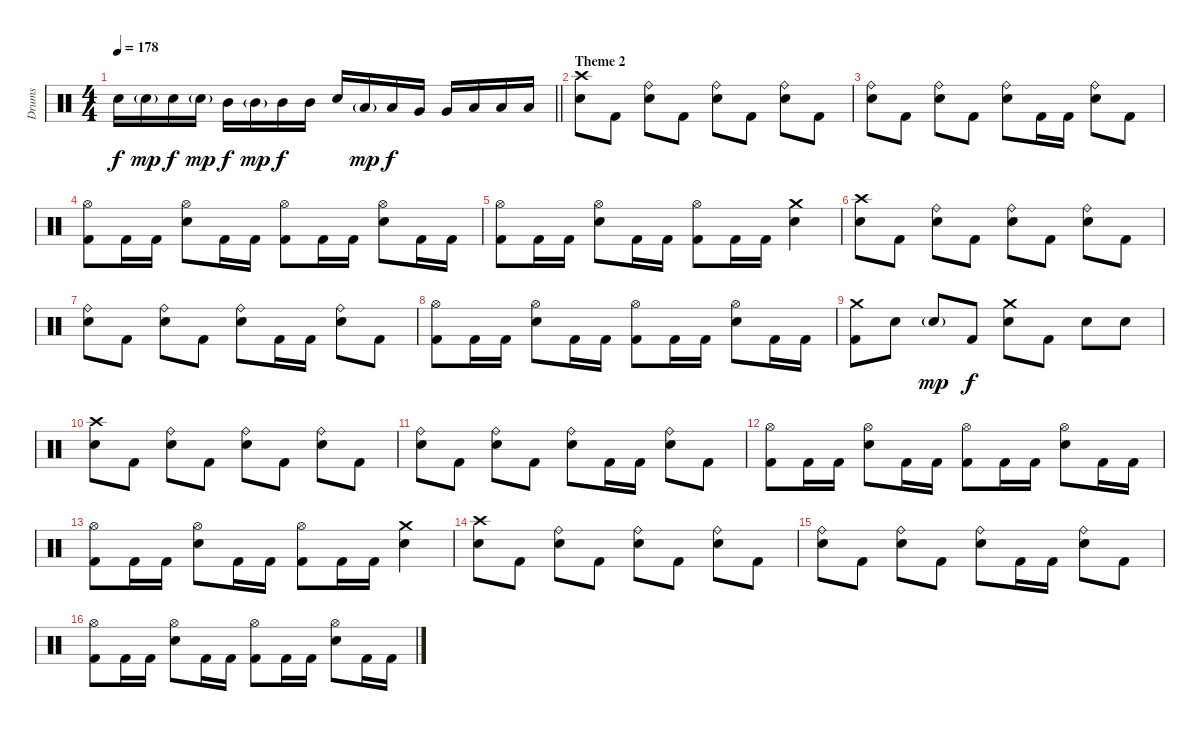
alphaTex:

\track ("Drums" "Drums") {instrument percussion}
\staff {score}
\articulation defaults
\ts (4 4)
\tempo 178
\clef neutral
\barLineRight lightlight
\ks c "Snare (hit) 2".16{dy f} "Snare (hit) 2"{g}.16{dy mp} "Snare (hit) 2".16{dy f} "Snare (hit) 2"{g}.16{dy mp} "Mid Tom (hit)".16{dy f} "Mid Tom (hit)"{g}.16{dy mp} "Mid Tom (hit)".16{dy f} "Mid Tom (hit)".16 "Snare (hit) 2".16 "Low Tom (hit)"{g}.16{dy mp} "Low Tom (hit)".16{dy f} "Very Low Tom (hit)".16 "Very Low Tom (hit)".16 "Low Floor Tom (hit)".16 "Low Floor Tom (hit)".16 "Low Floor Tom (hit)".16
|
\section ("" "Theme 2")
("Crash high (hit)" "Snare (hit) 2").8 "Kick (hit) 2".8 ("Ride (bell)" "Snare (hit) 2").8 "Kick (hit) 2".8 ("Ride (bell)" "Snare (hit) 2").8 "Kick (hit) 2".8 ("Ride (bell)" "Snare (hit) 2").8 "Kick (hit) 2".8 |
("Ride (bell)" "Snare (hit) 2").8 "Kick (hit) 2".8 ("Ride (bell)" "Snare (hit) 2").8 "Kick (hit) 2".8 ("Ride (bell)" "Snare (hit) 2").8 "Kick (hit) 2".16 "Kick (hit) 2".16 ("Ride (bell)" "Snare (hit) 2").8 "Kick (hit) 2".8 |
("Hi-Hat (open)" "Kick (hit) 2").8 "Kick (hit) 2".16 "Kick (hit) 2".16 ("Hi-Hat (open)" "Snare (hit) 2").8 "Kick (hit) 2".16 "Kick (hit) 2".16 ("Hi-Hat (open)" "Kick (hit) 2").8 "Kick (hit) 2".16 "Kick (hit) 2".16 ("Hi-Hat (open)" "Snare (hit) 2").8 "Kick (hit) 2".16 "Kick (hit) 2".16 |
("Hi-Hat (open)" "Kick (hit) 2").8 "Kick (hit) 2".16 "Kick (hit) 2".16 ("Hi-Hat (open)" "Snare (hit) 2").8 "Kick (hit) 2".16 "Kick (hit) 2".16 ("Hi-Hat (open)" "Kick (hit) 2").8 "Kick (hit) 2".16 "Kick (hit) 2".16 ("Crash medium (hit)" "Snare (hit) 2").4 |
("Crash high (hit)" "Snare (hit) 2").8 "Kick (hit) 2".8 ("Ride (bell)" "Snare (hit) 2").8 "Kick (hit) 2".8 ("Ride (bell)" "Snare (hit) 2").8 "Kick (hit) 2".8 ("Ride (bell)" "Snare (hit) 2").8 "Kick (hit) 2".8 |
("Ride (bell)" "Snare (hit) 2").8 "Kick (hit) 2".8 ("Ride (bell)" "Snare (hit) 2").8 "Kick (hit) 2".8 ("Ride (bell)" "Snare (hit) 2").8 "Kick (hit) 2".16 "Kick (hit) 2".16 ("Ride (bell)" "Snare (hit) 2").8 "Kick (hit) 2".8 |
("Hi-Hat (open)" "Kick (hit) 2").8 "Kick (hit) 2".16 "Kick (hit) 2".16 ("Hi-Hat (open)" "Snare (hit) 2").8 "Kick (hit) 2".16 "Kick (hit) 2".16 ("Hi-Hat (open)" "Kick (hit) 2").8 "Kick (hit) 2".16 "Kick (hit) 2".16 ("Hi-Hat (open)" "Snare (hit) 2").8 "Kick (hit) 2".16 "Kick (hit) 2".16 |
("Crash medium (hit)" "Kick (hit) 2").8 "Snare (hit) 2".8 "Snare (hit) 2"{g}.8{dy mp} "Kick (hit) 2".8{dy f} ("Crash medium (hit)" "Snare (hit) 2").8 "Kick (hit) 2".8 "Snare (hit) 2".8 "Snare (hit) 2".8 |
("Crash high (hit)" "Snare (hit) 2").8 "Kick (hit) 2".8 ("Ride (bell)" "Snare (hit) 2").8 "Kick (hit) 2".8 ("Ride (bell)" "Snare (hit) 2").8 "Kick (hit) 2".8 ("Ride (bell)" "Snare (hit) 2").8 "Kick (hit) 2".8 |
("Ride (bell)" "Snare (hit) 2").8 "Kick (hit) 2".8 ("Ride (bell)" "Snare (hit) 2").8 "Kick (hit) 2".8 ("Ride (bell)" "Snare (hit) 2").8 "Kick (hit) 2".16 "Kick (hit) 2".16 ("Ride (bell)" "Snare (hit) 2").8 "Kick (hit) 2".8 |
("Hi-Hat (open)" "Kick (hit) 2").8 "Kick (hit) 2".16 "Kick (hit) 2".16 ("Hi-Hat (open)" "Snare (hit) 2").8 "Kick (hit) 2".16 "Kick (hit) 2".16 ("Hi-Hat (open)" "Kick (hit) 2").8 "Kick (hit) 2".16 "Kick (hit) 2".16 ("Hi-Hat (open)" "Snare (hit) 2").8 "Kick (hit) 2".16 "Kick (hit) 2".16 |
("Hi-Hat (open)" "Kick (hit) 2").8 "Kick (hit) 2".16 "Kick (hit) 2".16 ("Hi-Hat (open)" "Snare (hit) 2").8 "Kick (hit) 2".16 "Kick (hit) 2".16 ("Hi-Hat (open)" "Kick (hit) 2").8 "Kick (hit) 2".16 "Kick (hit) 2".16 ("Crash medium (hit)" "Snare (hit) 2").4 |
("Crash high (hit)" "Snare (hit) 2").8 "Kick (hit) 2".8 ("Ride (bell)" "Snare (hit) 2").8 "Kick (hit) 2".8 ("Ride (bell)" "Snare (hit) 2").8 "Kick (hit) 2".8 ("Ride (bell)" "Snare (hit) 2").8 "Kick (hit) 2".8 |
("Ride (bell)" "Snare (hit) 2").8 "Kick (hit) 2".8 ("Ride (bell)" "Snare (hit) 2").8 "Kick (hit) 2".8 ("Ride (bell)" "Snare (hit) 2").8 "Kick (hit) 2".16 "Kick (hit) 2".16 ("Ride (bell)" "Snare (hit) 2").8 "Kick (hit) 2".8 |
("Hi-Hat (open)" "Kick (hit) 2").8 "Kick (hit) 2".16 "Kick (hit) 2".16 ("Hi-Hat (open)" "Snare (hit) 2").8 "Kick (hit) 2".16 "Kick (hit) 2".16 ("Hi-Hat (open)" "Kick (hit) 2").8 "Kick (hit) 2".16 "Kick (hit) 2".16 ("Hi-Hat (open)" "Snare (hit) 2").8 "Kick (hit) 2".16 "Kick (hit) 2".16
